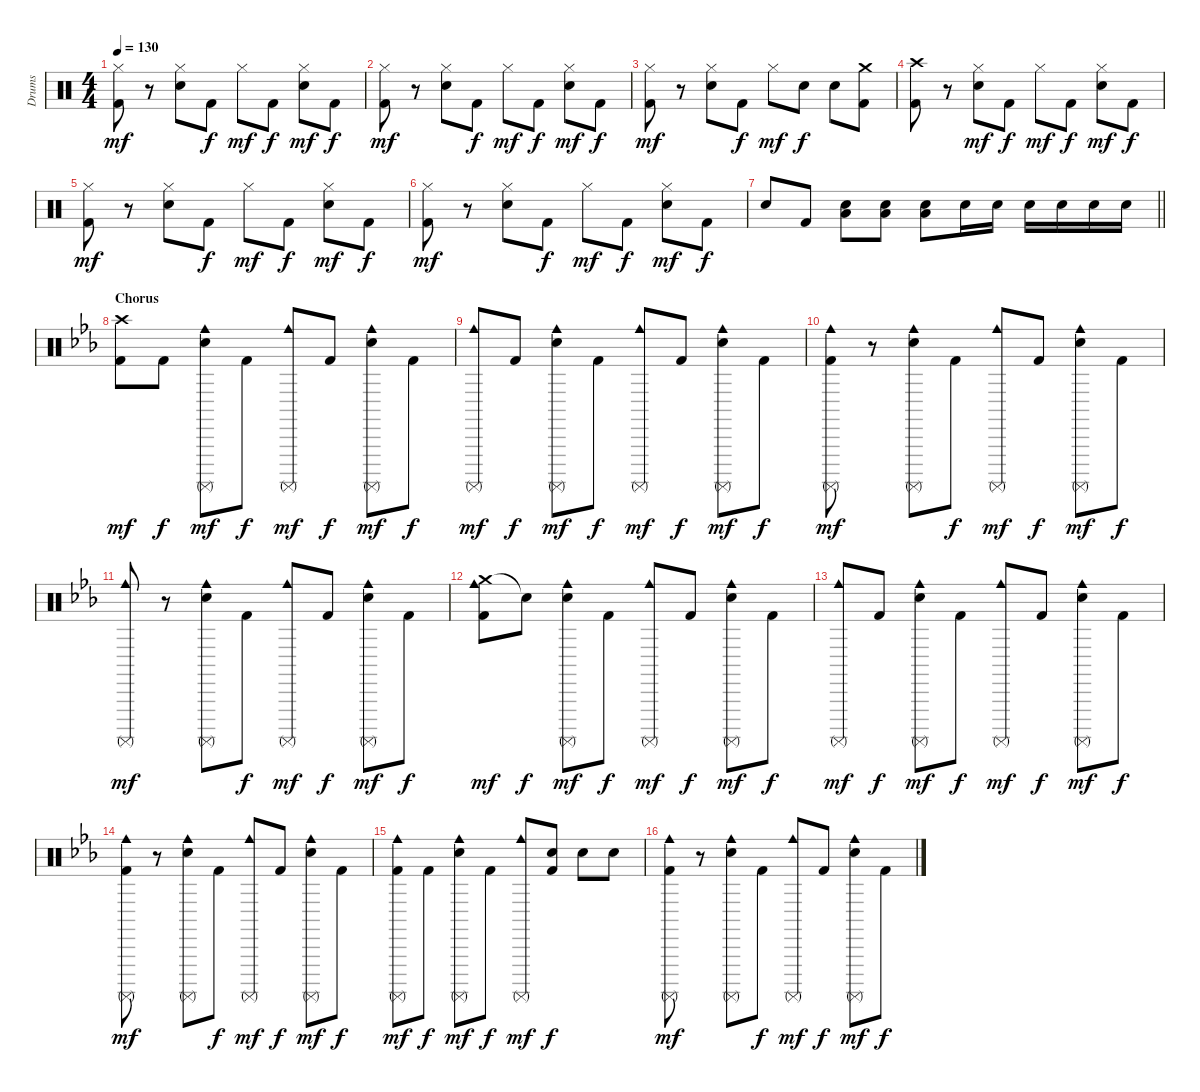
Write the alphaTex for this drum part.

\track ("Drums" "Drums") {instrument percussion}
\staff {score}
\articulation defaults
\ts (4 4)
\tempo 130
\clef neutral
\ks c
("Hi-Hat (closed)" "Kick (hit) 2").8{dy mf} r.8 ("Hi-Hat (closed)" "Electric Snare (hit)").8 "Kick (hit) 2".8{dy f} "Hi-Hat (closed)".8{dy mf} "Kick (hit) 2".8{dy f} ("Hi-Hat (closed)" "Electric Snare (hit)").8{dy mf} "Kick (hit) 2".8{dy f} |
("Hi-Hat (closed)" "Kick (hit) 2").8{dy mf} r.8 ("Hi-Hat (closed)" "Electric Snare (hit)").8 "Kick (hit) 2".8{dy f} "Hi-Hat (closed)".8{dy mf} "Kick (hit) 2".8{dy f} ("Hi-Hat (closed)" "Electric Snare (hit)").8{dy mf} "Kick (hit) 2".8{dy f} |
("Hi-Hat (closed)" "Kick (hit) 2").8{dy mf} r.8 ("Hi-Hat (closed)" "Electric Snare (hit)").8 "Kick (hit) 2".8{dy f} "Hi-Hat (closed)".8{dy mf} "Electric Snare (hit)".8{dy f} "Electric Snare (hit)".8 ("Crash medium (hit)" "Kick (hit) 2").8 |
("Crash high (hit)" "Kick (hit) 2").8 r.8 ("Hi-Hat (closed)" "Electric Snare (hit)").8{dy mf} "Kick (hit) 2".8{dy f} "Hi-Hat (closed)".8{dy mf} "Kick (hit) 2".8{dy f} ("Hi-Hat (closed)" "Electric Snare (hit)").8{dy mf} "Kick (hit) 2".8{dy f} |
("Hi-Hat (closed)" "Kick (hit) 2").8{dy mf} r.8 ("Hi-Hat (closed)" "Electric Snare (hit)").8 "Kick (hit) 2".8{dy f} "Hi-Hat (closed)".8{dy mf} "Kick (hit) 2".8{dy f} ("Hi-Hat (closed)" "Electric Snare (hit)").8{dy mf} "Kick (hit) 2".8{dy f} |
("Hi-Hat (closed)" "Kick (hit) 2").8{dy mf} r.8 ("Hi-Hat (closed)" "Electric Snare (hit)").8 "Kick (hit) 2".8{dy f} "Hi-Hat (closed)".8{dy mf} "Kick (hit) 2".8{dy f} ("Hi-Hat (closed)" "Electric Snare (hit)").8{dy mf} "Kick (hit) 2".8{dy f} |
\barLineRight lightlight "Electric Snare (hit)".8 "Kick (hit) 2".8
("Electric Snare (hit)" "Low Tom (hit)").8 ("Electric Snare (hit)" "Low Tom (hit)").8 ("Electric Snare (hit)" "Low Tom (hit)").8 "Electric Snare (hit)".16 "Electric Snare (hit)".16 "Electric Snare (hit)".16 "Electric Snare (hit)".16 "Electric Snare (hit)".16 "Electric Snare (hit)".16 |
\section ("" "Chorus")
\ks eb
("Crash high (hit)" "Kick (hit) 2").8{dy mf} "Kick (hit) 2".8{dy f} ("Surdo (mute)" "Cowbell medium (hit)" "Electric Snare (hit)").8{dy mf} "Kick (hit) 2".8{dy f} ("Surdo (mute)" "Cowbell medium (hit)").8{dy mf} "Kick (hit) 2".8{dy f} ("Surdo (mute)" "Cowbell medium (hit)" "Electric Snare (hit)").8{dy mf} "Kick (hit) 2".8{dy f} |
("Surdo (mute)" "Cowbell medium (hit)").8{dy mf} "Kick (hit) 2".8{dy f} ("Surdo (mute)" "Cowbell medium (hit)" "Electric Snare (hit)").8{dy mf} "Kick (hit) 2".8{dy f} ("Surdo (mute)" "Cowbell medium (hit)").8{dy mf} "Kick (hit) 2".8{dy f} ("Surdo (mute)" "Cowbell medium (hit)" "Electric Snare (hit)").8{dy mf} "Kick (hit) 2".8{dy f} |
("Surdo (mute)" "Cowbell medium (hit)" "Kick (hit) 2").8{dy mf} r.8 ("Surdo (mute)" "Cowbell medium (hit)" "Electric Snare (hit)").8 "Kick (hit) 2".8{dy f} ("Surdo (mute)" "Cowbell medium (hit)").8{dy mf} "Kick (hit) 2".8{dy f} ("Surdo (mute)" "Cowbell medium (hit)" "Electric Snare (hit)").8{dy mf} "Kick (hit) 2".8{dy f} |
("Surdo (mute)" "Cowbell medium (hit)").8{dy mf} r.8 ("Surdo (mute)" "Cowbell medium (hit)" "Electric Snare (hit)").8 "Kick (hit) 2".8{dy f} ("Surdo (mute)" "Cowbell medium (hit)").8{dy mf} "Kick (hit) 2".8{dy f} ("Surdo (mute)" "Cowbell medium (hit)" "Electric Snare (hit)").8{dy mf} "Kick (hit) 2".8{dy f} |
("Crash medium (hit)" "Cowbell medium (hit)" "Kick (hit) 2").8{dy mf} "Snare (hit)"{t}.8{dy f} ("Surdo (mute)" "Cowbell medium (hit)" "Electric Snare (hit)").8{dy mf} "Kick (hit) 2".8{dy f} ("Surdo (mute)" "Cowbell medium (hit)").8{dy mf} "Kick (hit) 2".8{dy f} ("Surdo (mute)" "Cowbell medium (hit)" "Electric Snare (hit)").8{dy mf} "Kick (hit) 2".8{dy f} |
("Surdo (mute)" "Cowbell medium (hit)").8{dy mf} "Kick (hit) 2".8{dy f} ("Surdo (mute)" "Cowbell medium (hit)" "Electric Snare (hit)").8{dy mf} "Kick (hit) 2".8{dy f} ("Surdo (mute)" "Cowbell medium (hit)").8{dy mf} "Kick (hit) 2".8{dy f} ("Surdo (mute)" "Cowbell medium (hit)" "Electric Snare (hit)").8{dy mf} "Kick (hit) 2".8{dy f} |
("Surdo (mute)" "Cowbell medium (hit)" "Kick (hit) 2").8{dy mf} r.8 ("Surdo (mute)" "Cowbell medium (hit)" "Electric Snare (hit)").8 "Kick (hit) 2".8{dy f} ("Surdo (mute)" "Cowbell medium (hit)").8{dy mf} "Kick (hit) 2".8{dy f} ("Surdo (mute)" "Cowbell medium (hit)" "Electric Snare (hit)").8{dy mf} "Kick (hit) 2".8{dy f} |
("Surdo (mute)" "Cowbell medium (hit)" "Kick (hit) 2").8{dy mf} "Kick (hit) 2".8{dy f} ("Surdo (mute)" "Cowbell medium (hit)" "Electric Snare (hit)").8{dy mf} "Kick (hit) 2".8{dy f} ("Surdo (mute)" "Cowbell medium (hit)").8{dy mf} ("Electric Snare (hit)" "Kick (hit) 2").8{dy f} "Electric Snare (hit)".8 "Electric Snare (hit)".8 |
("Surdo (mute)" "Cowbell medium (hit)" "Kick (hit) 2").8{dy mf} r.8 ("Surdo (mute)" "Cowbell medium (hit)" "Electric Snare (hit)").8 "Kick (hit) 2".8{dy f} ("Surdo (mute)" "Cowbell medium (hit)").8{dy mf} "Kick (hit) 2".8{dy f} ("Surdo (mute)" "Cowbell medium (hit)" "Electric Snare (hit)").8{dy mf} "Kick (hit) 2".8{dy f}
